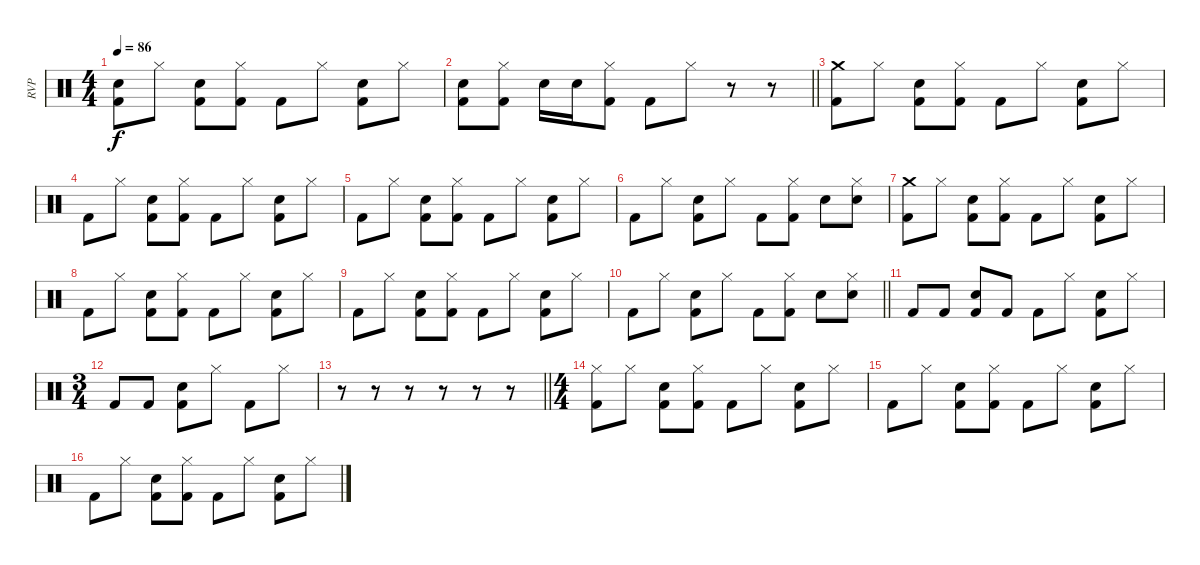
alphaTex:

\track ("RVP" "RVP") {instrument percussion}
\staff {score}
\articulation defaults
\ts (4 4)
\tempo 86
\clef neutral
\ks c
("Electric Snare (hit)" "Kick (hit) 2").8{dy f} "Hi-Hat (closed)".8 ("Electric Snare (hit)" "Kick (hit) 2").8 ("Hi-Hat (closed)" "Kick (hit) 2").8 "Kick (hit) 2".8 "Hi-Hat (closed)".8 ("Electric Snare (hit)" "Kick (hit) 2").8 "Hi-Hat (closed)".8 |
\barLineRight lightlight
("Electric Snare (hit)" "Kick (hit) 2").8 ("Hi-Hat (closed)" "Kick (hit) 2").8 "Electric Snare (hit)".16 "Electric Snare (hit)".16 ("Hi-Hat (closed)" "Kick (hit) 2").8 "Kick (hit) 2".8 "Hi-Hat (closed)".8 r.8 r.8 |
("Crash medium (hit)" "Kick (hit) 2").8 "Hi-Hat (closed)".8 ("Electric Snare (hit)" "Kick (hit) 2").8 ("Hi-Hat (closed)" "Kick (hit) 2").8 "Kick (hit) 2".8 "Hi-Hat (closed)".8 ("Electric Snare (hit)" "Kick (hit) 2").8 "Hi-Hat (closed)".8 |
"Kick (hit) 2".8 "Hi-Hat (closed)".8 ("Electric Snare (hit)" "Kick (hit) 2").8 ("Hi-Hat (closed)" "Kick (hit) 2").8 "Kick (hit) 2".8 "Hi-Hat (closed)".8 ("Electric Snare (hit)" "Kick (hit) 2").8 "Hi-Hat (closed)".8 |
"Kick (hit) 2".8 "Hi-Hat (closed)".8 ("Electric Snare (hit)" "Kick (hit) 2").8 ("Hi-Hat (closed)" "Kick (hit) 2").8 "Kick (hit) 2".8 "Hi-Hat (closed)".8 ("Electric Snare (hit)" "Kick (hit) 2").8 "Hi-Hat (closed)".8 |
"Kick (hit) 2".8 "Hi-Hat (closed)".8 ("Electric Snare (hit)" "Kick (hit) 2").8 "Hi-Hat (closed)".8 "Kick (hit) 2".8 ("Hi-Hat (closed)" "Kick (hit) 2").8 "Electric Snare (hit)".8 ("Hi-Hat (closed)" "Electric Snare (hit)").8 |
("Crash medium (hit)" "Kick (hit) 2").8 "Hi-Hat (closed)".8 ("Electric Snare (hit)" "Kick (hit) 2").8 ("Hi-Hat (closed)" "Kick (hit) 2").8 "Kick (hit) 2".8 "Hi-Hat (closed)".8 ("Electric Snare (hit)" "Kick (hit) 2").8 "Hi-Hat (closed)".8 |
"Kick (hit) 2".8 "Hi-Hat (closed)".8 ("Electric Snare (hit)" "Kick (hit) 2").8 ("Hi-Hat (closed)" "Kick (hit) 2").8 "Kick (hit) 2".8 "Hi-Hat (closed)".8 ("Electric Snare (hit)" "Kick (hit) 2").8 "Hi-Hat (closed)".8 |
"Kick (hit) 2".8 "Hi-Hat (closed)".8 ("Electric Snare (hit)" "Kick (hit) 2").8 ("Hi-Hat (closed)" "Kick (hit) 2").8 "Kick (hit) 2".8 "Hi-Hat (closed)".8 ("Electric Snare (hit)" "Kick (hit) 2").8 "Hi-Hat (closed)".8 |
\barLineRight lightlight "Kick (hit) 2".8 "Hi-Hat (closed)".8
("Electric Snare (hit)" "Kick (hit) 2").8 "Hi-Hat (closed)".8 "Kick (hit) 2".8 ("Hi-Hat (closed)" "Kick (hit) 2").8 "Electric Snare (hit)".8 ("Hi-Hat (closed)" "Electric Snare (hit)").8 |
"Kick (hit) 2".8 "Kick (hit) 2".8 ("Electric Snare (hit)" "Kick (hit) 2").8 "Kick (hit) 2".8 "Kick (hit) 2".8 "Hi-Hat (closed)".8 ("Electric Snare (hit)" "Kick (hit) 2").8 "Hi-Hat (closed)".8 |
\ts (3 4)
"Kick (hit) 2".8 "Kick (hit) 2".8 ("Electric Snare (hit)" "Kick (hit) 2").8 "Hi-Hat (closed)".8 "Kick (hit) 2".8 "Hi-Hat (closed)".8 |
\barLineRight lightlight
r.8 r.8 r.8 r.8 r.8 r.8 |
\ts (4 4)
("Hi-Hat (closed)" "Kick (hit) 2").8 "Hi-Hat (closed)".8 ("Electric Snare (hit)" "Kick (hit) 2").8 ("Hi-Hat (closed)" "Kick (hit) 2").8 "Kick (hit) 2".8 "Hi-Hat (closed)".8 ("Electric Snare (hit)" "Kick (hit) 2").8 "Hi-Hat (closed)".8 |
"Kick (hit) 2".8 "Hi-Hat (closed)".8 ("Electric Snare (hit)" "Kick (hit) 2").8 ("Hi-Hat (closed)" "Kick (hit) 2").8 "Kick (hit) 2".8 "Hi-Hat (closed)".8 ("Electric Snare (hit)" "Kick (hit) 2").8 "Hi-Hat (closed)".8 |
"Kick (hit) 2".8 "Hi-Hat (closed)".8 ("Electric Snare (hit)" "Kick (hit) 2").8 ("Hi-Hat (closed)" "Kick (hit) 2").8 "Kick (hit) 2".8 "Hi-Hat (closed)".8 ("Electric Snare (hit)" "Kick (hit) 2").8 "Hi-Hat (closed)".8
